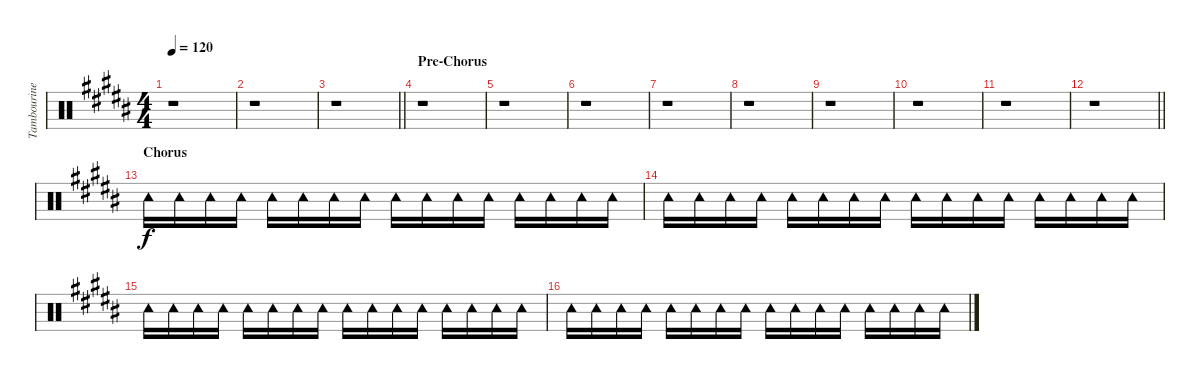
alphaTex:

\track ("Tambourine" "Tambourine") {instrument percussion}
\staff {score}
\articulation defaults
\ts (4 4)
\tempo 120
\clef neutral
\ks b
r.1{dy f} |
r.1 |
\barLineRight lightlight
r.1 |
\section ("" "Pre-Chorus")
r.1 |
r.1 |
r.1 |
r.1 |
r.1 |
r.1 |
r.1 |
r.1 |
\barLineRight lightlight
r.1 |
\section ("" "Chorus")
"Tambourine (hit)".16 "Tambourine (hit)".16 "Tambourine (hit)".16 "Tambourine (hit)".16 "Tambourine (hit)".16 "Tambourine (hit)".16 "Tambourine (hit)".16 "Tambourine (hit)".16 "Tambourine (hit)".16 "Tambourine (hit)".16 "Tambourine (hit)".16 "Tambourine (hit)".16 "Tambourine (hit)".16 "Tambourine (hit)".16 "Tambourine (hit)".16 "Tambourine (hit)".16 |
"Tambourine (hit)".16 "Tambourine (hit)".16 "Tambourine (hit)".16 "Tambourine (hit)".16 "Tambourine (hit)".16 "Tambourine (hit)".16 "Tambourine (hit)".16 "Tambourine (hit)".16 "Tambourine (hit)".16 "Tambourine (hit)".16 "Tambourine (hit)".16 "Tambourine (hit)".16 "Tambourine (hit)".16 "Tambourine (hit)".16 "Tambourine (hit)".16 "Tambourine (hit)".16 |
"Tambourine (hit)".16 "Tambourine (hit)".16 "Tambourine (hit)".16 "Tambourine (hit)".16 "Tambourine (hit)".16 "Tambourine (hit)".16 "Tambourine (hit)".16 "Tambourine (hit)".16 "Tambourine (hit)".16 "Tambourine (hit)".16 "Tambourine (hit)".16 "Tambourine (hit)".16 "Tambourine (hit)".16 "Tambourine (hit)".16 "Tambourine (hit)".16 "Tambourine (hit)".16 |
"Tambourine (hit)".16 "Tambourine (hit)".16 "Tambourine (hit)".16 "Tambourine (hit)".16 "Tambourine (hit)".16 "Tambourine (hit)".16 "Tambourine (hit)".16 "Tambourine (hit)".16 "Tambourine (hit)".16 "Tambourine (hit)".16 "Tambourine (hit)".16 "Tambourine (hit)".16 "Tambourine (hit)".16 "Tambourine (hit)".16 "Tambourine (hit)".16 "Tambourine (hit)".16
